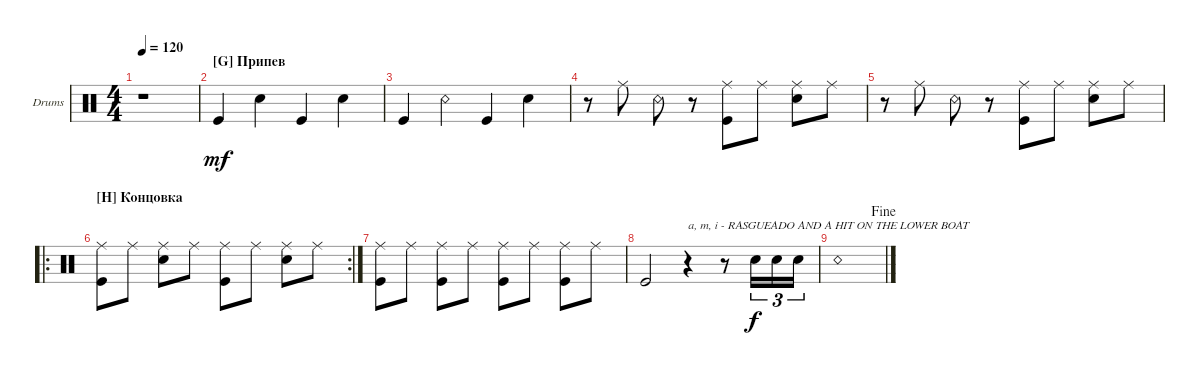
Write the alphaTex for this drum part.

\defaultSystemsLayout 4
\bracketExtendMode groupsimilarinstruments
\firstSystemTrackNameOrientation horizontal
\otherSystemsTrackNameOrientation horizontal
\track ("Drumkit" "Drums") {instrument percussion}
\staff {score}
\articulation defaults
\ts (4 4)
\tempo 120
\clef neutral
\ks c
r.1{dy mf} |
\section ("G" "Припев")
"Kick (hit)".4 "Snare (hit) 2".4 "Kick (hit)".4 "Snare (hit) 2".4 |
"Kick (hit)".4 "Snare (rim shot)".4 "Kick (hit)".4 "Snare (hit) 2".4 |
r.8 "Ride (middle)".8 "Snare (rim shot)".8 r.8 ("Kick (hit)" "Ride (middle)").8 "Ride (middle)".8 ("Snare (hit) 2" "Ride (middle)").8 "Ride (middle)".8 |
r.8 "Ride (middle)".8 "Snare (rim shot)".8 r.8 ("Kick (hit)" "Ride (middle)").8 "Ride (middle)".8 ("Snare (hit) 2" "Ride (middle)").8 "Ride (middle)".8 |
\ro
\rc 2
\section ("H" "Концовка")
("Kick (hit)" "Ride (middle)").8 "Ride (middle)".8 ("Snare (hit) 2" "Ride (middle)").8 "Ride (middle)".8 ("Kick (hit)" "Ride (middle)").8 "Ride (middle)".8 ("Snare (hit) 2" "Ride (middle)").8 "Ride (middle)".8 |
("Kick (hit)" "Ride (middle)").8 "Ride (middle)".8 ("Ride (middle)" "Kick (hit)").8 "Ride (middle)".8 ("Kick (hit)" "Ride (middle)").8 "Ride (middle)".8 ("Ride (middle)" "Kick (hit)").8 "Ride (middle)".8 |
"Kick (hit)".2 r.4{txt "a, m, i - RASGUEADO AND A HIT ON THE LOWER BOAT"} r.8 "Snare (hit) 2".16{tu (3 2) dy f} "Snare (hit) 2".16{tu (3 2)} "Snare (hit) 2".16{tu (3 2)} |
\jump fine "Snare (rim shot)".1
